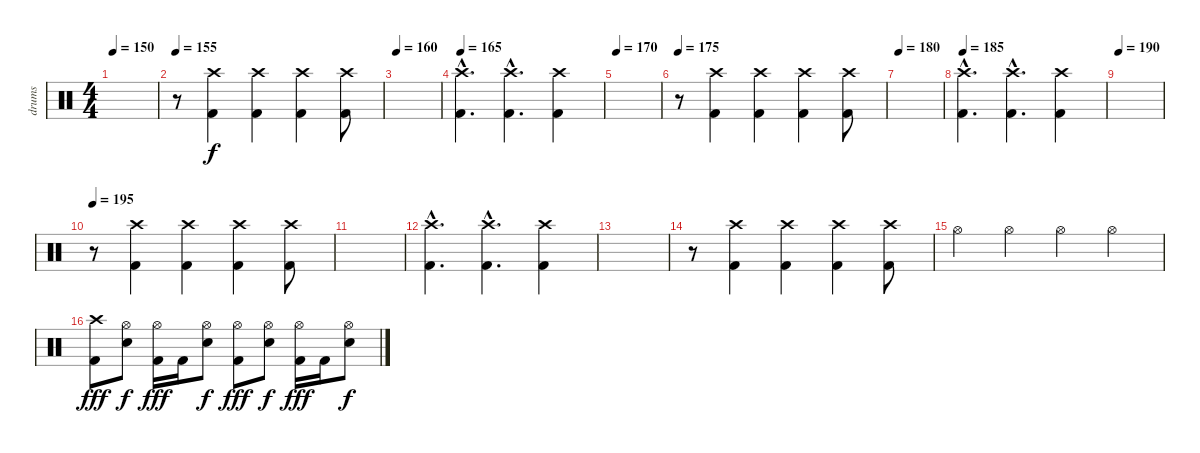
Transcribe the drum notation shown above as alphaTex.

\track ("drums" "drums") {instrument percussion}
\staff {score}
\articulation defaults
\ts (4 4)
\tempo 150
\clef neutral
\ks c
|
\tempo 155
r.8 ("Crash high (hit)" "Kick (hit) 2").4 ("Crash high (hit)" "Kick (hit) 2").4 ("Crash high (hit)" "Kick (hit) 2").4 ("Crash high (hit)" "Kick (hit) 2").8 |
\tempo 160
|
\tempo 165
("Crash high (hit)"{hac} "Kick (hit) 2"{hac}).4{d} ("Crash high (hit)"{hac} "Kick (hit) 2"{hac}).4{d} ("Crash high (hit)" "Kick (hit) 2").4 |
\tempo 170
|
\tempo 175
r.8 ("Crash high (hit)" "Kick (hit) 2").4 ("Crash high (hit)" "Kick (hit) 2").4 ("Crash high (hit)" "Kick (hit) 2").4 ("Crash high (hit)" "Kick (hit) 2").8 |
\tempo 180
|
\tempo 185
("Crash high (hit)"{hac} "Kick (hit) 2"{hac}).4{d} ("Crash high (hit)"{hac} "Kick (hit) 2"{hac}).4{d} ("Crash high (hit)" "Kick (hit) 2").4 |
\tempo 190
|
\tempo 195
r.8 ("Crash high (hit)" "Kick (hit) 2").4 ("Crash high (hit)" "Kick (hit) 2").4 ("Crash high (hit)" "Kick (hit) 2").4 ("Crash high (hit)" "Kick (hit) 2").8 |
|
("Crash high (hit)"{hac} "Kick (hit) 2"{hac}).4{d} ("Crash high (hit)"{hac} "Kick (hit) 2"{hac}).4{d} ("Crash high (hit)" "Kick (hit) 2").4 |
|
r.8 ("Crash high (hit)" "Kick (hit) 2").4 ("Crash high (hit)" "Kick (hit) 2").4 ("Crash high (hit)" "Kick (hit) 2").4 ("Crash high (hit)" "Kick (hit) 2").8 |
"Hi-Hat (open)".4{dy f} "Hi-Hat (open)".4 "Hi-Hat (open)".4 "Hi-Hat (open)".4 |
("Crash high (hit)" "Kick (hit) 2").8{dy fff} ("Hi-Hat (open)" "Snare (hit) 2").8{dy f} ("Hi-Hat (open)" "Kick (hit) 2").16{dy fff} "Kick (hit) 2".16 ("Hi-Hat (open)" "Snare (hit) 2").8{dy f} ("Hi-Hat (open)" "Kick (hit) 2").8{dy fff} ("Hi-Hat (open)" "Snare (hit) 2").8{dy f} ("Hi-Hat (open)" "Kick (hit) 2").16{dy fff} "Kick (hit) 2".16 ("Hi-Hat (open)" "Snare (hit) 2").8{dy f}
